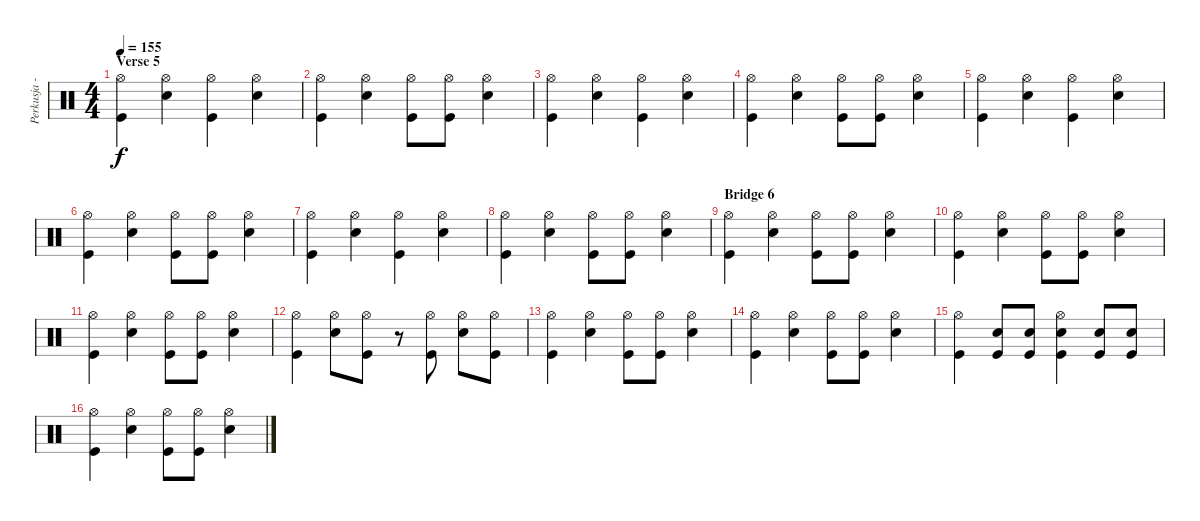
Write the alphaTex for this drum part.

\track ("Perkusja - Mielony" "Perkusja -") {instrument percussion}
\staff {score}
\articulation defaults
\ts (4 4)
\section ("" "Verse 5")
\tempo 155
\clef neutral
\ks c
("Hi-Hat (open)" "Kick (hit)").4{dy f} ("Snare (hit) 2" "Hi-Hat (open)").4 ("Hi-Hat (open)" "Kick (hit)").4 ("Snare (hit) 2" "Hi-Hat (open)").4 |
("Hi-Hat (open)" "Kick (hit)").4 ("Snare (hit) 2" "Hi-Hat (open)").4 ("Hi-Hat (open)" "Kick (hit)").8 ("Hi-Hat (open)" "Kick (hit)").8 ("Snare (hit) 2" "Hi-Hat (open)").4 |
("Hi-Hat (open)" "Kick (hit)").4 ("Snare (hit) 2" "Hi-Hat (open)").4 ("Hi-Hat (open)" "Kick (hit)").4 ("Snare (hit) 2" "Hi-Hat (open)").4 |
("Hi-Hat (open)" "Kick (hit)").4 ("Snare (hit) 2" "Hi-Hat (open)").4 ("Hi-Hat (open)" "Kick (hit)").8 ("Hi-Hat (open)" "Kick (hit)").8 ("Snare (hit) 2" "Hi-Hat (open)").4 |
("Hi-Hat (open)" "Kick (hit)").4 ("Snare (hit) 2" "Hi-Hat (open)").4 ("Hi-Hat (open)" "Kick (hit)").4 ("Snare (hit) 2" "Hi-Hat (open)").4 |
("Hi-Hat (open)" "Kick (hit)").4 ("Snare (hit) 2" "Hi-Hat (open)").4 ("Hi-Hat (open)" "Kick (hit)").8 ("Hi-Hat (open)" "Kick (hit)").8 ("Snare (hit) 2" "Hi-Hat (open)").4 |
("Hi-Hat (open)" "Kick (hit)").4 ("Snare (hit) 2" "Hi-Hat (open)").4 ("Hi-Hat (open)" "Kick (hit)").4 ("Snare (hit) 2" "Hi-Hat (open)").4 |
("Hi-Hat (open)" "Kick (hit)").4 ("Snare (hit) 2" "Hi-Hat (open)").4 ("Hi-Hat (open)" "Kick (hit)").8 ("Hi-Hat (open)" "Kick (hit)").8 ("Snare (hit) 2" "Hi-Hat (open)").4 |
\section ("" "Bridge 6")
("Hi-Hat (open)" "Kick (hit)").4 ("Snare (hit) 2" "Hi-Hat (open)").4 ("Hi-Hat (open)" "Kick (hit)").8 ("Hi-Hat (open)" "Kick (hit)").8 ("Snare (hit) 2" "Hi-Hat (open)").4 |
("Hi-Hat (open)" "Kick (hit)").4 ("Snare (hit) 2" "Hi-Hat (open)").4 ("Hi-Hat (open)" "Kick (hit)").8 ("Hi-Hat (open)" "Kick (hit)").8 ("Snare (hit) 2" "Hi-Hat (open)").4 |
("Hi-Hat (open)" "Kick (hit)").4 ("Snare (hit) 2" "Hi-Hat (open)").4 ("Hi-Hat (open)" "Kick (hit)").8 ("Hi-Hat (open)" "Kick (hit)").8 ("Snare (hit) 2" "Hi-Hat (open)").4 |
("Hi-Hat (open)" "Kick (hit)").4 ("Snare (hit) 2" "Hi-Hat (open)").8 ("Hi-Hat (open)" "Kick (hit)").8 r.8 ("Hi-Hat (open)" "Kick (hit)").8 ("Snare (hit) 2" "Hi-Hat (open)").8 ("Hi-Hat (open)" "Kick (hit)").8 |
("Hi-Hat (open)" "Kick (hit)").4 ("Snare (hit) 2" "Hi-Hat (open)").4 ("Hi-Hat (open)" "Kick (hit)").8 ("Hi-Hat (open)" "Kick (hit)").8 ("Snare (hit) 2" "Hi-Hat (open)").4 |
("Hi-Hat (open)" "Kick (hit)").4 ("Snare (hit) 2" "Hi-Hat (open)").4 ("Hi-Hat (open)" "Kick (hit)").8 ("Hi-Hat (open)" "Kick (hit)").8 ("Snare (hit) 2" "Hi-Hat (open)").4 |
("Hi-Hat (open)" "Kick (hit)").4 ("Snare (hit) 2" "Kick (hit)").8 ("Snare (hit) 2" "Kick (hit)").8 ("Snare (hit) 2" "Hi-Hat (open)" "Kick (hit)").4 ("Snare (hit) 2" "Kick (hit)").8 ("Snare (hit) 2" "Kick (hit)").8 |
("Hi-Hat (open)" "Kick (hit)").4 ("Snare (hit) 2" "Hi-Hat (open)").4 ("Hi-Hat (open)" "Kick (hit)").8 ("Hi-Hat (open)" "Kick (hit)").8 ("Snare (hit) 2" "Hi-Hat (open)").4
